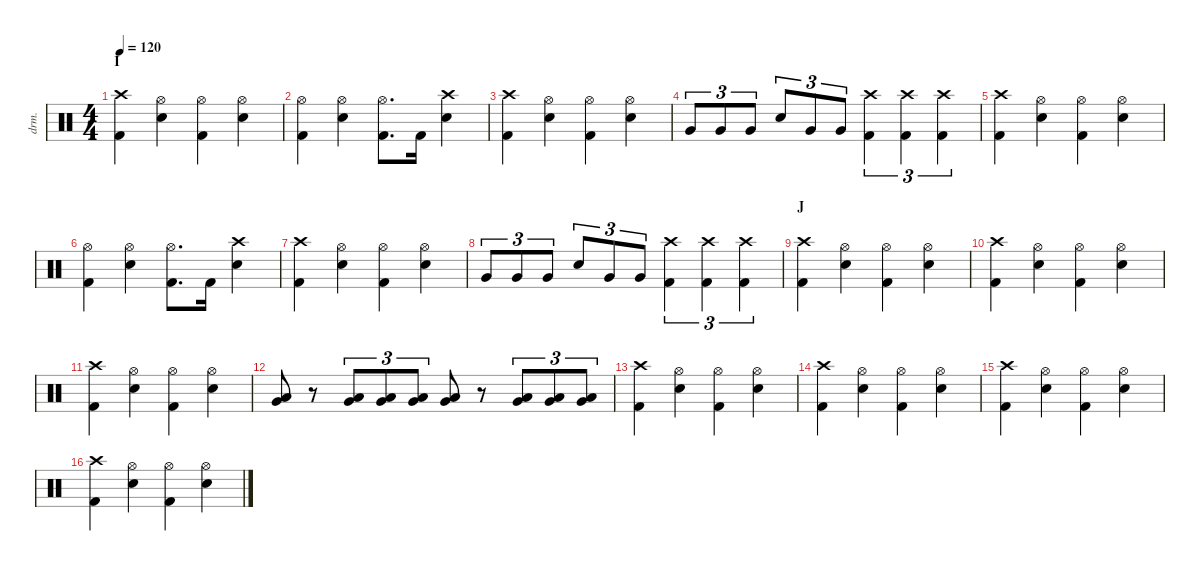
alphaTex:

\defaultSystemsLayout 4
\hideDynamics
\bracketExtendMode nobrackets
\track ("Drums" "drm.") {instrument percussion}
\staff {score}
\articulation defaults
\ts (4 4)
\section ("" "I")
\tempo 120
\clef neutral
\ks c
("Crash high (hit)" "Kick (hit) 2").4{dy f} ("Hi-Hat (open)" "Snare (hit) 2").4 ("Hi-Hat (open)" "Kick (hit) 2").4 ("Hi-Hat (open)" "Snare (hit) 2").4 |
("Hi-Hat (open)" "Kick (hit) 2").4 ("Hi-Hat (open)" "Snare (hit) 2").4 ("Hi-Hat (open)" "Kick (hit) 2").8{d} "Kick (hit) 2".16 ("Crash high (hit)" "Snare (hit) 2").4 |
("Crash high (hit)" "Kick (hit) 2").4 ("Hi-Hat (open)" "Snare (hit) 2").4 ("Hi-Hat (open)" "Kick (hit) 2").4 ("Hi-Hat (open)" "Snare (hit) 2").4 |
"Very Low Tom (hit)".8{tu (3 2)} "Very Low Tom (hit)".8{tu (3 2)} "Very Low Tom (hit)".8{tu (3 2)} "Snare (hit) 2".8{tu (3 2)} "Very Low Tom (hit)".8{tu (3 2)} "Very Low Tom (hit)".8{tu (3 2)} ("Crash high (hit)" "Kick (hit) 2").4{tu (3 2)} ("Crash high (hit)" "Kick (hit) 2").4{tu (3 2)} ("Crash high (hit)" "Kick (hit) 2").4{tu (3 2)} |
("Crash high (hit)" "Kick (hit) 2").4 ("Hi-Hat (open)" "Snare (hit) 2").4 ("Hi-Hat (open)" "Kick (hit) 2").4 ("Hi-Hat (open)" "Snare (hit) 2").4 |
("Hi-Hat (open)" "Kick (hit) 2").4 ("Hi-Hat (open)" "Snare (hit) 2").4 ("Hi-Hat (open)" "Kick (hit) 2").8{d} "Kick (hit) 2".16 ("Crash high (hit)" "Snare (hit) 2").4 |
("Crash high (hit)" "Kick (hit) 2").4 ("Hi-Hat (open)" "Snare (hit) 2").4 ("Hi-Hat (open)" "Kick (hit) 2").4 ("Hi-Hat (open)" "Snare (hit) 2").4 |
"Very Low Tom (hit)".8{tu (3 2)} "Very Low Tom (hit)".8{tu (3 2)} "Very Low Tom (hit)".8{tu (3 2)} "Snare (hit) 2".8{tu (3 2)} "Very Low Tom (hit)".8{tu (3 2)} "Very Low Tom (hit)".8{tu (3 2)} ("Crash high (hit)" "Kick (hit) 2").4{tu (3 2)} ("Crash high (hit)" "Kick (hit) 2").4{tu (3 2)} ("Crash high (hit)" "Kick (hit) 2").4{tu (3 2)} |
\section ("" "J")
("Crash high (hit)" "Kick (hit) 2").4 ("Snare (hit) 2" "Hi-Hat (open)").4 ("Hi-Hat (open)" "Kick (hit) 2").4 ("Snare (hit) 2" "Hi-Hat (open)").4 |
("Crash high (hit)" "Kick (hit) 2").4 ("Snare (hit) 2" "Hi-Hat (open)").4 ("Hi-Hat (open)" "Kick (hit) 2").4 ("Snare (hit) 2" "Hi-Hat (open)").4 |
("Crash high (hit)" "Kick (hit) 2").4 ("Snare (hit) 2" "Hi-Hat (open)").4 ("Hi-Hat (open)" "Kick (hit) 2").4 ("Snare (hit) 2" "Hi-Hat (open)").4 |
("Low Floor Tom (hit)" "Very Low Tom (hit)").8 r.8 ("Low Floor Tom (hit)" "Very Low Tom (hit)").8{tu (3 2)} ("Low Floor Tom (hit)" "Very Low Tom (hit)").8{tu (3 2)} ("Low Floor Tom (hit)" "Very Low Tom (hit)").8{tu (3 2)} ("Low Floor Tom (hit)" "Very Low Tom (hit)").8 r.8 ("Low Floor Tom (hit)" "Very Low Tom (hit)").8{tu (3 2)} ("Low Floor Tom (hit)" "Very Low Tom (hit)").8{tu (3 2)} ("Low Floor Tom (hit)" "Very Low Tom (hit)").8{tu (3 2)} |
("Crash high (hit)" "Kick (hit) 2").4 ("Snare (hit) 2" "Hi-Hat (open)").4 ("Hi-Hat (open)" "Kick (hit) 2").4 ("Snare (hit) 2" "Hi-Hat (open)").4 |
("Crash high (hit)" "Kick (hit) 2").4 ("Snare (hit) 2" "Hi-Hat (open)").4 ("Hi-Hat (open)" "Kick (hit) 2").4 ("Snare (hit) 2" "Hi-Hat (open)").4 |
("Crash high (hit)" "Kick (hit) 2").4 ("Snare (hit) 2" "Hi-Hat (open)").4 ("Hi-Hat (open)" "Kick (hit) 2").4 ("Snare (hit) 2" "Hi-Hat (open)").4 |
("Crash high (hit)" "Kick (hit) 2").4 ("Snare (hit) 2" "Hi-Hat (open)").4 ("Hi-Hat (open)" "Kick (hit) 2").4 ("Snare (hit) 2" "Hi-Hat (open)").4
